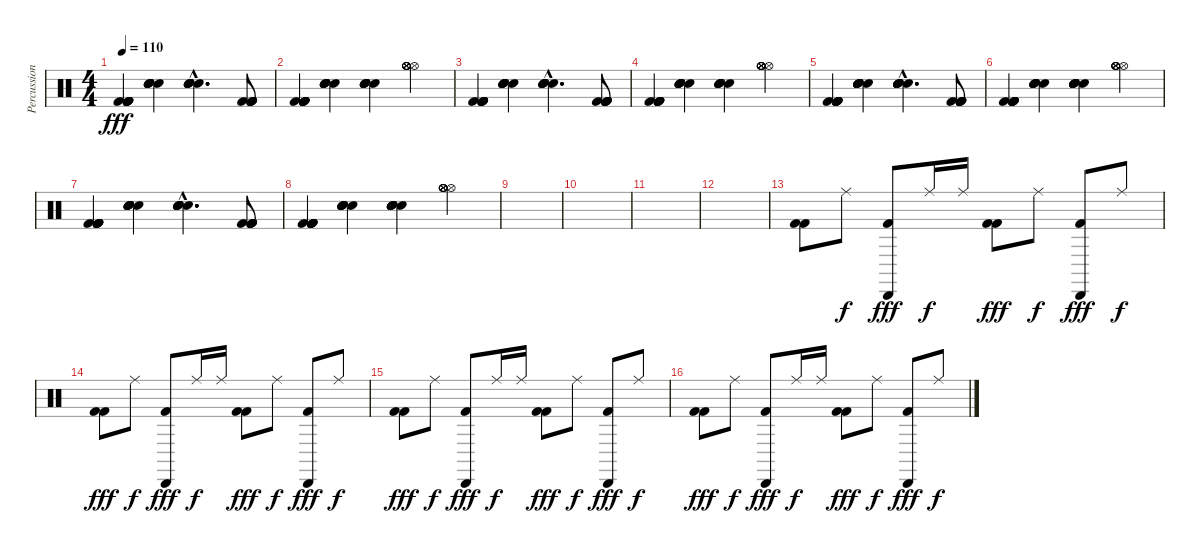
\track ("Percussion" "Percussion") {instrument percussion}
\staff {score}
\articulation defaults
\ts (4 4)
\tempo 110
\clef neutral
\ks c
("Kick (hit) 2" "Kick (hit) 2" "Kick (hit) 2" "Kick (hit) 2" "Kick (hit) 2" "Kick (hit) 2").4{dy fff volume 16} ("Snare (hit) 2" "Snare (hit) 2" "Snare (hit) 2" "Snare (hit) 2" "Snare (hit) 2" "Snare (hit) 2").4 ("Snare (hit) 2"{hac} "Snare (hit) 2"{hac} "Snare (hit) 2"{hac} "Snare (hit) 2"{hac} "Snare (hit) 2"{hac} "Snare (hit) 2"{hac}).4{d} ("Kick (hit) 2" "Kick (hit) 2" "Kick (hit) 2" "Kick (hit) 2" "Kick (hit) 2" "Kick (hit) 2").8 |
("Kick (hit) 2" "Kick (hit) 2" "Kick (hit) 2" "Kick (hit) 2" "Kick (hit) 2" "Kick (hit) 2").4{volume 16} ("Snare (hit) 2" "Snare (hit) 2" "Snare (hit) 2" "Snare (hit) 2" "Snare (hit) 2" "Snare (hit) 2").4 ("Snare (hit) 2" "Snare (hit) 2" "Snare (hit) 2" "Snare (hit) 2" "Snare (hit) 2" "Snare (hit) 2").4 ("Hi-Hat (open)" "Hi-Hat (open)" "Hi-Hat (open)" "Hi-Hat (open)" "Hi-Hat (open)" "Hi-Hat (open)").4 |
("Kick (hit) 2" "Kick (hit) 2" "Kick (hit) 2" "Kick (hit) 2" "Kick (hit) 2" "Kick (hit) 2").4{volume 16} ("Snare (hit) 2" "Snare (hit) 2" "Snare (hit) 2" "Snare (hit) 2" "Snare (hit) 2" "Snare (hit) 2").4 ("Snare (hit) 2"{hac} "Snare (hit) 2"{hac} "Snare (hit) 2"{hac} "Snare (hit) 2"{hac} "Snare (hit) 2"{hac} "Snare (hit) 2"{hac}).4{d} ("Kick (hit) 2" "Kick (hit) 2" "Kick (hit) 2" "Kick (hit) 2" "Kick (hit) 2" "Kick (hit) 2").8 |
("Kick (hit) 2" "Kick (hit) 2" "Kick (hit) 2" "Kick (hit) 2" "Kick (hit) 2" "Kick (hit) 2").4{volume 16} ("Snare (hit) 2" "Snare (hit) 2" "Snare (hit) 2" "Snare (hit) 2" "Snare (hit) 2" "Snare (hit) 2").4 ("Snare (hit) 2" "Snare (hit) 2" "Snare (hit) 2" "Snare (hit) 2" "Snare (hit) 2" "Snare (hit) 2").4 ("Hi-Hat (open)" "Hi-Hat (open)" "Hi-Hat (open)" "Hi-Hat (open)" "Hi-Hat (open)" "Hi-Hat (open)").4 |
("Kick (hit) 2" "Kick (hit) 2" "Kick (hit) 2" "Kick (hit) 2" "Kick (hit) 2" "Kick (hit) 2").4{volume 16} ("Snare (hit) 2" "Snare (hit) 2" "Snare (hit) 2" "Snare (hit) 2" "Snare (hit) 2" "Snare (hit) 2").4 ("Snare (hit) 2"{hac} "Snare (hit) 2"{hac} "Snare (hit) 2"{hac} "Snare (hit) 2"{hac} "Snare (hit) 2"{hac} "Snare (hit) 2"{hac}).4{d} ("Kick (hit) 2" "Kick (hit) 2" "Kick (hit) 2" "Kick (hit) 2" "Kick (hit) 2" "Kick (hit) 2").8 |
("Kick (hit) 2" "Kick (hit) 2" "Kick (hit) 2" "Kick (hit) 2" "Kick (hit) 2" "Kick (hit) 2").4{volume 16} ("Snare (hit) 2" "Snare (hit) 2" "Snare (hit) 2" "Snare (hit) 2" "Snare (hit) 2" "Snare (hit) 2").4 ("Snare (hit) 2" "Snare (hit) 2" "Snare (hit) 2" "Snare (hit) 2" "Snare (hit) 2" "Snare (hit) 2").4 ("Hi-Hat (open)" "Hi-Hat (open)" "Hi-Hat (open)" "Hi-Hat (open)" "Hi-Hat (open)" "Hi-Hat (open)").4 |
("Kick (hit) 2" "Kick (hit) 2" "Kick (hit) 2" "Kick (hit) 2" "Kick (hit) 2" "Kick (hit) 2").4{volume 16} ("Snare (hit) 2" "Snare (hit) 2" "Snare (hit) 2" "Snare (hit) 2" "Snare (hit) 2" "Snare (hit) 2").4 ("Snare (hit) 2"{hac} "Snare (hit) 2"{hac} "Snare (hit) 2"{hac} "Snare (hit) 2"{hac} "Snare (hit) 2"{hac} "Snare (hit) 2"{hac}).4{d} ("Kick (hit) 2" "Kick (hit) 2" "Kick (hit) 2" "Kick (hit) 2" "Kick (hit) 2" "Kick (hit) 2").8 |
("Kick (hit) 2" "Kick (hit) 2" "Kick (hit) 2" "Kick (hit) 2" "Kick (hit) 2" "Kick (hit) 2").4{volume 16} ("Snare (hit) 2" "Snare (hit) 2" "Snare (hit) 2" "Snare (hit) 2" "Snare (hit) 2" "Snare (hit) 2").4 ("Snare (hit) 2" "Snare (hit) 2" "Snare (hit) 2" "Snare (hit) 2" "Snare (hit) 2" "Snare (hit) 2").4 ("Hi-Hat (open)" "Hi-Hat (open)" "Hi-Hat (open)" "Hi-Hat (open)" "Hi-Hat (open)" "Hi-Hat (open)").4 |
|
|
|
|
("Kick (hit) 2" "Kick (hit) 2").8 "Ride (middle)".8{dy f} ("Kick (hit) 2" "Cabasa (hit)").8{dy fff} "Ride (middle)".16{dy f} "Ride (middle)".16 ("Kick (hit) 2" "Kick (hit) 2").8{dy fff} "Ride (middle)".8{dy f} ("Kick (hit) 2" "Cabasa (hit)").8{dy fff} "Ride (middle)".8{dy f} |
("Kick (hit) 2" "Kick (hit) 2").8{dy fff} "Ride (middle)".8{dy f} ("Kick (hit) 2" "Cabasa (hit)").8{dy fff} "Ride (middle)".16{dy f} "Ride (middle)".16 ("Kick (hit) 2" "Kick (hit) 2").8{dy fff} "Ride (middle)".8{dy f} ("Kick (hit) 2" "Cabasa (hit)").8{dy fff} "Ride (middle)".8{dy f} |
("Kick (hit) 2" "Kick (hit) 2").8{dy fff} "Ride (middle)".8{dy f} ("Kick (hit) 2" "Cabasa (hit)").8{dy fff} "Ride (middle)".16{dy f} "Ride (middle)".16 ("Kick (hit) 2" "Kick (hit) 2").8{dy fff} "Ride (middle)".8{dy f} ("Kick (hit) 2" "Cabasa (hit)").8{dy fff} "Ride (middle)".8{dy f} |
("Kick (hit) 2" "Kick (hit) 2").8{dy fff} "Ride (middle)".8{dy f} ("Kick (hit) 2" "Cabasa (hit)").8{dy fff} "Ride (middle)".16{dy f} "Ride (middle)".16 ("Kick (hit) 2" "Kick (hit) 2").8{dy fff} "Ride (middle)".8{dy f} ("Kick (hit) 2" "Cabasa (hit)").8{dy fff} "Ride (middle)".8{dy f}
